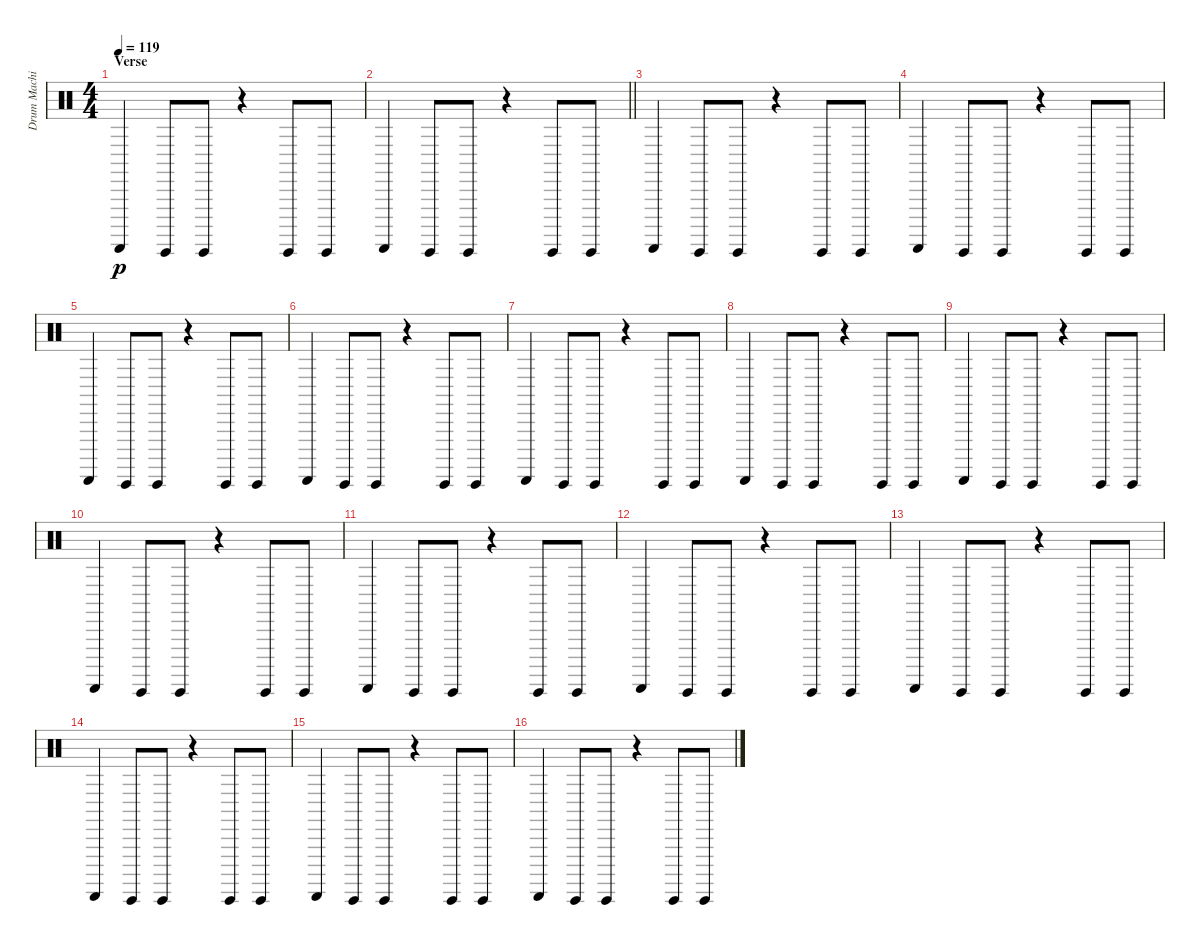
\track ("Drum Machine" "Drum Machi") {instrument percussion}
\staff {score}
\articulation defaults
\ts (4 4)
\section ("" "Verse")
\tempo 119
\clef neutral
\ks c "Guiro (scrap-return)".4{dy p} "Guiro (hit)".8 "Guiro (hit)".8
r.4 "Guiro (hit)".8 "Guiro (hit)".8 |
\barLineRight lightlight "Guiro (scrap-return)".4 "Guiro (hit)".8 "Guiro (hit)".8
r.4 "Guiro (hit)".8 "Guiro (hit)".8 |
\section ("" "")
"Guiro (scrap-return)".4 "Guiro (hit)".8 "Guiro (hit)".8 r.4 "Guiro (hit)".8 "Guiro (hit)".8 |
"Guiro (scrap-return)".4 "Guiro (hit)".8 "Guiro (hit)".8 r.4 "Guiro (hit)".8 "Guiro (hit)".8 |
"Guiro (scrap-return)".4 "Guiro (hit)".8 "Guiro (hit)".8 r.4 "Guiro (hit)".8 "Guiro (hit)".8 |
"Guiro (scrap-return)".4 "Guiro (hit)".8 "Guiro (hit)".8 r.4 "Guiro (hit)".8 "Guiro (hit)".8 |
"Guiro (scrap-return)".4 "Guiro (hit)".8 "Guiro (hit)".8 r.4 "Guiro (hit)".8 "Guiro (hit)".8 |
"Guiro (scrap-return)".4 "Guiro (hit)".8 "Guiro (hit)".8 r.4 "Guiro (hit)".8 "Guiro (hit)".8 |
"Guiro (scrap-return)".4 "Guiro (hit)".8 "Guiro (hit)".8 r.4 "Guiro (hit)".8 "Guiro (hit)".8 |
"Guiro (scrap-return)".4 "Guiro (hit)".8 "Guiro (hit)".8 r.4 "Guiro (hit)".8 "Guiro (hit)".8 |
"Guiro (scrap-return)".4 "Guiro (hit)".8 "Guiro (hit)".8 r.4 "Guiro (hit)".8 "Guiro (hit)".8 |
"Guiro (scrap-return)".4 "Guiro (hit)".8 "Guiro (hit)".8 r.4 "Guiro (hit)".8 "Guiro (hit)".8 |
"Guiro (scrap-return)".4 "Guiro (hit)".8 "Guiro (hit)".8 r.4 "Guiro (hit)".8 "Guiro (hit)".8 |
"Guiro (scrap-return)".4 "Guiro (hit)".8 "Guiro (hit)".8 r.4 "Guiro (hit)".8 "Guiro (hit)".8 |
"Guiro (scrap-return)".4 "Guiro (hit)".8 "Guiro (hit)".8 r.4 "Guiro (hit)".8 "Guiro (hit)".8 |
"Guiro (scrap-return)".4 "Guiro (hit)".8 "Guiro (hit)".8 r.4 "Guiro (hit)".8 "Guiro (hit)".8
